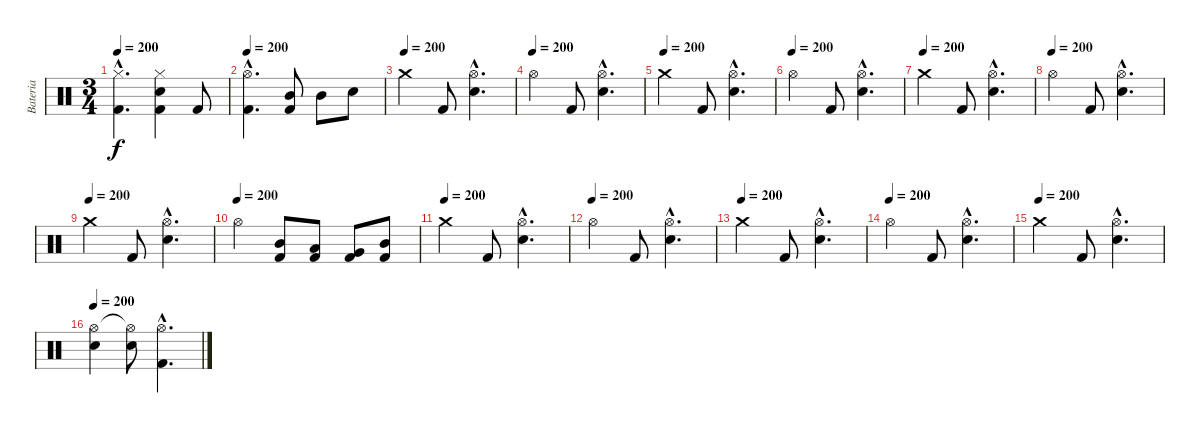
\track ("Bateria" "Bateria") {instrument percussion}
\staff {score}
\articulation defaults
\ts (3 4)
\tempo 200
\clef neutral
\ks c
("Hi-Hat (closed)"{hac} "Kick (hit) 2"{hac}).4{d dy f} ("Electric Snare (hit)" "Hi-Hat (closed)" "Kick (hit) 2").4 "Kick (hit) 2".8 |
\tempo 200
("Hi-Hat (open)"{hac} "Kick (hit) 2"{hac}).4{d} ("Mid Tom (hit)" "Kick (hit) 2").8 "Mid Tom (hit)".8 "Electric Snare (hit)".8 |
\tempo (200)
"Crash medium (hit)".4 "Kick (hit) 2".8 ("Hi-Hat (open)"{hac} "Electric Snare (hit)"{hac}).4{d} |
\tempo (200)
"Hi-Hat (open)".4 "Kick (hit) 2".8 ("Hi-Hat (open)"{hac} "Electric Snare (hit)"{hac}).4{d} |
\tempo (200)
"Crash medium (hit)".4 "Kick (hit) 2".8 ("Hi-Hat (open)"{hac} "Electric Snare (hit)"{hac}).4{d} |
\tempo (200)
"Hi-Hat (open)".4 "Kick (hit) 2".8 ("Hi-Hat (open)"{hac} "Electric Snare (hit)"{hac}).4{d} |
\tempo (200)
"Crash medium (hit)".4 "Kick (hit) 2".8 ("Hi-Hat (open)"{hac} "Electric Snare (hit)"{hac}).4{d} |
\tempo (200)
"Hi-Hat (open)".4 "Kick (hit) 2".8 ("Hi-Hat (open)"{hac} "Electric Snare (hit)"{hac}).4{d} |
\tempo (200)
"Crash medium (hit)".4 "Kick (hit) 2".8 ("Hi-Hat (open)"{hac} "Electric Snare (hit)"{hac}).4{d} |
\tempo (200)
"Hi-Hat (open)".4 ("Mid Tom (hit)" "Kick (hit) 2").8 ("Low Tom (hit)" "Kick (hit) 2").8 ("Very Low Tom (hit)" "Kick (hit) 2").8 ("Mid Tom (hit)" "Kick (hit) 2").8 |
\tempo (200)
"Crash medium (hit)".4 "Kick (hit) 2".8 ("Hi-Hat (open)"{hac} "Electric Snare (hit)"{hac}).4{d} |
\tempo (200)
"Hi-Hat (open)".4 "Kick (hit) 2".8 ("Hi-Hat (open)"{hac} "Electric Snare (hit)"{hac}).4{d} |
\tempo (200)
"Crash medium (hit)".4 "Kick (hit) 2".8 ("Hi-Hat (open)"{hac} "Electric Snare (hit)"{hac}).4{d} |
\tempo (200)
"Hi-Hat (open)".4 "Kick (hit) 2".8 ("Hi-Hat (open)"{hac} "Electric Snare (hit)"{hac}).4{d} |
\tempo (200)
"Crash medium (hit)".4 "Kick (hit) 2".8 ("Hi-Hat (open)"{hac} "Electric Snare (hit)"{hac}).4{d} |
\tempo 200
("Hi-Hat (open)" "Electric Snare (hit)").4 ("Hi-Hat (open)"{t} "Electric Snare (hit)").8 ("Hi-Hat (open)"{hac} "Kick (hit) 2"{hac}).4{d}
